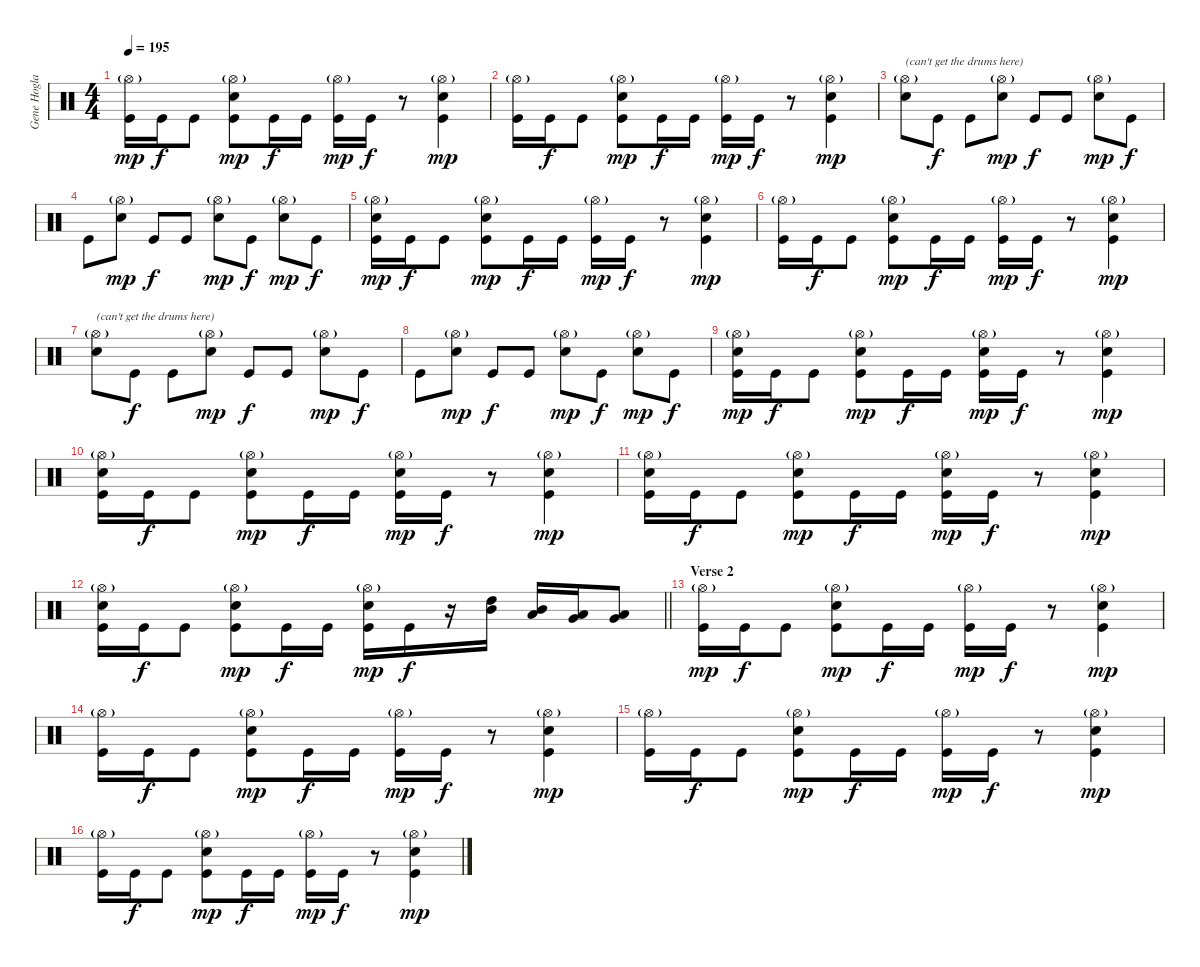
\track ("Gene Hoglan" "Gene Hogla") {instrument percussion}
\staff {score}
\articulation defaults
\ts (4 4)
\tempo 195
\clef neutral
\ks c
("Hi-Hat (open)"{g} "Kick (hit)").16{dy mp} "Kick (hit)".16{dy f} "Kick (hit)".8 ("Hi-Hat (open)"{g} "Electric Snare (hit)" "Kick (hit)").8{dy mp} "Kick (hit)".16{dy f} "Kick (hit)".16 ("Hi-Hat (open)"{g} "Kick (hit)").16{dy mp} "Kick (hit)".16{dy f} r.8 ("Hi-Hat (open)"{g} "Electric Snare (hit)" "Kick (hit)").4{dy mp} |
("Hi-Hat (open)"{g} "Kick (hit)").16 "Kick (hit)".16{dy f} "Kick (hit)".8 ("Hi-Hat (open)"{g} "Electric Snare (hit)" "Kick (hit)").8{dy mp} "Kick (hit)".16{dy f} "Kick (hit)".16 ("Hi-Hat (open)"{g} "Kick (hit)").16{dy mp} "Kick (hit)".16{dy f} r.8 ("Hi-Hat (open)"{g} "Electric Snare (hit)" "Kick (hit)").4{dy mp} |
("Hi-Hat (open)"{g} "Electric Snare (hit)").8{txt "(can't get the drums here)"} "Kick (hit)".8{dy f} "Kick (hit)".8 ("Hi-Hat (open)"{g} "Electric Snare (hit)").8{dy mp} "Kick (hit)".8{dy f} "Kick (hit)".8 ("Hi-Hat (open)"{g} "Electric Snare (hit)").8{dy mp} "Kick (hit)".8{dy f} |
"Kick (hit)".8 ("Hi-Hat (open)"{g} "Electric Snare (hit)").8{dy mp} "Kick (hit)".8{dy f} "Kick (hit)".8 ("Hi-Hat (open)"{g} "Electric Snare (hit)").8{dy mp} "Kick (hit)".8{dy f} ("Hi-Hat (open)"{g} "Electric Snare (hit)").8{dy mp} "Kick (hit)".8{dy f} |
("Hi-Hat (open)"{g} "Electric Snare (hit)" "Kick (hit)").16{dy mp} "Kick (hit)".16{dy f} "Kick (hit)".8 ("Hi-Hat (open)"{g} "Electric Snare (hit)" "Kick (hit)").8{dy mp} "Kick (hit)".16{dy f} "Kick (hit)".16 ("Hi-Hat (open)"{g} "Kick (hit)").16{dy mp} "Kick (hit)".16{dy f} r.8 ("Hi-Hat (open)"{g} "Electric Snare (hit)" "Kick (hit)").4{dy mp} |
("Hi-Hat (open)"{g} "Kick (hit)").16 "Kick (hit)".16{dy f} "Kick (hit)".8 ("Hi-Hat (open)"{g} "Electric Snare (hit)" "Kick (hit)").8{dy mp} "Kick (hit)".16{dy f} "Kick (hit)".16 ("Hi-Hat (open)"{g} "Kick (hit)").16{dy mp} "Kick (hit)".16{dy f} r.8 ("Hi-Hat (open)"{g} "Electric Snare (hit)" "Kick (hit)").4{dy mp} |
("Hi-Hat (open)"{g} "Electric Snare (hit)").8{txt "(can't get the drums here)"} "Kick (hit)".8{dy f} "Kick (hit)".8 ("Hi-Hat (open)"{g} "Electric Snare (hit)").8{dy mp} "Kick (hit)".8{dy f} "Kick (hit)".8 ("Hi-Hat (open)"{g} "Electric Snare (hit)").8{dy mp} "Kick (hit)".8{dy f} |
"Kick (hit)".8 ("Hi-Hat (open)"{g} "Electric Snare (hit)").8{dy mp} "Kick (hit)".8{dy f} "Kick (hit)".8 ("Hi-Hat (open)"{g} "Electric Snare (hit)").8{dy mp} "Kick (hit)".8{dy f} ("Hi-Hat (open)"{g} "Electric Snare (hit)").8{dy mp} "Kick (hit)".8{dy f} |
("Hi-Hat (open)"{g} "Electric Snare (hit)" "Kick (hit)").16{dy mp} "Kick (hit)".16{dy f} "Kick (hit)".8 ("Hi-Hat (open)"{g} "Electric Snare (hit)" "Kick (hit)").8{dy mp} "Kick (hit)".16{dy f} "Kick (hit)".16 ("Hi-Hat (open)"{g} "Electric Snare (hit)" "Kick (hit)").16{dy mp} "Kick (hit)".16{dy f} r.8 ("Hi-Hat (open)"{g} "Electric Snare (hit)" "Kick (hit)").4{dy mp} |
("Hi-Hat (open)"{g} "Electric Snare (hit)" "Kick (hit)").16 "Kick (hit)".16{dy f} "Kick (hit)".8 ("Hi-Hat (open)"{g} "Electric Snare (hit)" "Kick (hit)").8{dy mp} "Kick (hit)".16{dy f} "Kick (hit)".16 ("Hi-Hat (open)"{g} "Electric Snare (hit)" "Kick (hit)").16{dy mp} "Kick (hit)".16{dy f} r.8 ("Hi-Hat (open)"{g} "Electric Snare (hit)" "Kick (hit)").4{dy mp} |
("Hi-Hat (open)"{g} "Electric Snare (hit)" "Kick (hit)").16 "Kick (hit)".16{dy f} "Kick (hit)".8 ("Hi-Hat (open)"{g} "Electric Snare (hit)" "Kick (hit)").8{dy mp} "Kick (hit)".16{dy f} "Kick (hit)".16 ("Hi-Hat (open)"{g} "Electric Snare (hit)" "Kick (hit)").16{dy mp} "Kick (hit)".16{dy f} r.8 ("Hi-Hat (open)"{g} "Electric Snare (hit)" "Kick (hit)").4{dy mp} |
\barLineRight lightlight
("Hi-Hat (open)"{g} "Electric Snare (hit)" "Kick (hit)").16 "Kick (hit)".16{dy f} "Kick (hit)".8 ("Hi-Hat (open)"{g} "Electric Snare (hit)" "Kick (hit)").8{dy mp} "Kick (hit)".16{dy f} "Kick (hit)".16 ("Hi-Hat (open)"{g} "Electric Snare (hit)" "Kick (hit)").16{dy mp} "Kick (hit)".16{dy f} r.16 ("Mid Tom (hit)" "High Tom (hit)").16 ("Low Tom (hit)" "Mid Tom (hit)").16 ("Very Low Tom (hit)" "Low Tom (hit)").16 ("Low Floor Tom (hit)" "Very Low Tom (hit)").8 |
\section ("" "Verse 2")
("Hi-Hat (open)"{g} "Kick (hit)").16{dy mp} "Kick (hit)".16{dy f} "Kick (hit)".8 ("Hi-Hat (open)"{g} "Electric Snare (hit)" "Kick (hit)").8{dy mp} "Kick (hit)".16{dy f} "Kick (hit)".16 ("Hi-Hat (open)"{g} "Kick (hit)").16{dy mp} "Kick (hit)".16{dy f} r.8 ("Hi-Hat (open)"{g} "Electric Snare (hit)" "Kick (hit)").4{dy mp} |
("Hi-Hat (open)"{g} "Kick (hit)").16 "Kick (hit)".16{dy f} "Kick (hit)".8 ("Hi-Hat (open)"{g} "Electric Snare (hit)" "Kick (hit)").8{dy mp} "Kick (hit)".16{dy f} "Kick (hit)".16 ("Hi-Hat (open)"{g} "Kick (hit)").16{dy mp} "Kick (hit)".16{dy f} r.8 ("Hi-Hat (open)"{g} "Electric Snare (hit)" "Kick (hit)").4{dy mp} |
("Hi-Hat (open)"{g} "Kick (hit)").16 "Kick (hit)".16{dy f} "Kick (hit)".8 ("Hi-Hat (open)"{g} "Electric Snare (hit)" "Kick (hit)").8{dy mp} "Kick (hit)".16{dy f} "Kick (hit)".16 ("Hi-Hat (open)"{g} "Kick (hit)").16{dy mp} "Kick (hit)".16{dy f} r.8 ("Hi-Hat (open)"{g} "Electric Snare (hit)" "Kick (hit)").4{dy mp} |
("Hi-Hat (open)"{g} "Kick (hit)").16 "Kick (hit)".16{dy f} "Kick (hit)".8 ("Hi-Hat (open)"{g} "Electric Snare (hit)" "Kick (hit)").8{dy mp} "Kick (hit)".16{dy f} "Kick (hit)".16 ("Hi-Hat (open)"{g} "Kick (hit)").16{dy mp} "Kick (hit)".16{dy f} r.8 ("Hi-Hat (open)"{g} "Electric Snare (hit)" "Kick (hit)").4{dy mp}
